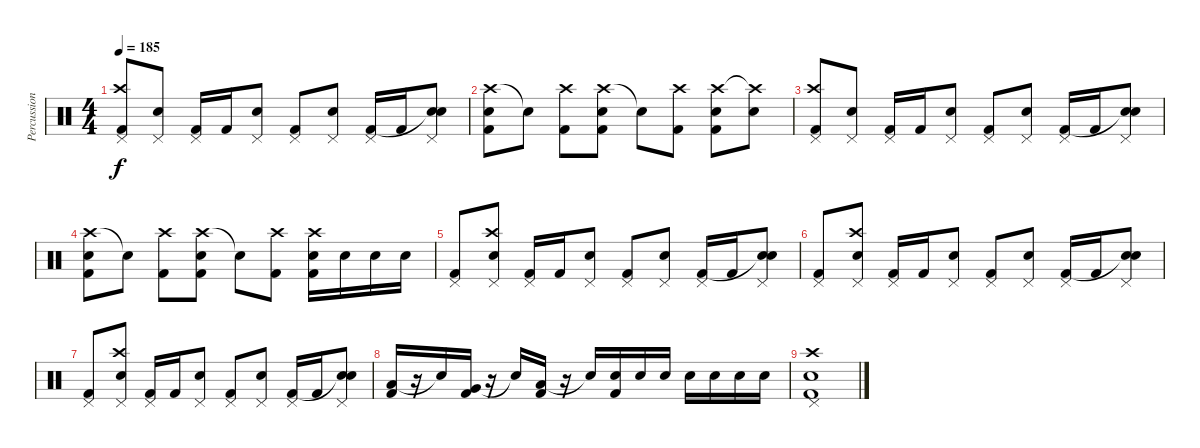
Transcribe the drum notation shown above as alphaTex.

\track ("Percussions" "Percussion") {instrument percussion}
\staff {score}
\articulation defaults
\ts (4 4)
\tempo 185
\clef neutral
\ks c
("Pedal Hi-Hat (hit)" "Crash high (hit)" "Kick (hit) 2").8{dy f} ("Pedal Hi-Hat (hit)" "Snare (hit) 2").8 ("Pedal Hi-Hat (hit)" "Kick (hit) 2").16 "Kick (hit) 2".16 ("Pedal Hi-Hat (hit)" "Snare (hit) 2").8 ("Pedal Hi-Hat (hit)" "Kick (hit) 2").8 ("Pedal Hi-Hat (hit)" "Snare (hit) 2").8 ("Pedal Hi-Hat (hit)" "Kick (hit) 2").16 "Kick (hit) 2".16 ("Pedal Hi-Hat (hit)" "Snare (hit)"{t} "Snare (hit) 2").8 |
("Crash high (hit)" "Snare (hit) 2" "Kick (hit) 2").8 "Snare (hit)"{t}.8 ("Crash high (hit)" "Kick (hit) 2").8 ("Crash high (hit)" "Snare (hit) 2" "Kick (hit) 2").8 "Snare (hit)"{t}.8 ("Crash high (hit)" "Kick (hit) 2").8 ("Crash high (hit)" "Snare (hit) 2" "Kick (hit) 2").8 ("Crash high (hit)"{t} "Snare (hit) 2").8 |
("Pedal Hi-Hat (hit)" "Crash high (hit)" "Kick (hit) 2").8 ("Pedal Hi-Hat (hit)" "Snare (hit) 2").8 ("Pedal Hi-Hat (hit)" "Kick (hit) 2").16 "Kick (hit) 2".16 ("Pedal Hi-Hat (hit)" "Snare (hit) 2").8 ("Pedal Hi-Hat (hit)" "Kick (hit) 2").8 ("Pedal Hi-Hat (hit)" "Snare (hit) 2").8 ("Pedal Hi-Hat (hit)" "Kick (hit) 2").16 "Kick (hit) 2".16 ("Pedal Hi-Hat (hit)" "Snare (hit)"{t} "Snare (hit) 2").8 |
("Crash high (hit)" "Snare (hit) 2" "Kick (hit) 2").8 "Snare (hit)"{t}.8 ("Crash high (hit)" "Kick (hit) 2").8 ("Crash high (hit)" "Snare (hit) 2" "Kick (hit) 2").8 "Snare (hit)"{t}.8 ("Crash high (hit)" "Kick (hit) 2").8 ("Crash high (hit)" "Snare (hit) 2" "Kick (hit) 2").16 "Snare (hit) 2".16 "Snare (hit) 2".16 "Snare (hit) 2".16 |
("Pedal Hi-Hat (hit)" "Kick (hit) 2").8 ("Pedal Hi-Hat (hit)" "Crash high (hit)" "Snare (hit) 2").8 ("Pedal Hi-Hat (hit)" "Kick (hit) 2").16 "Kick (hit) 2".16 ("Pedal Hi-Hat (hit)" "Snare (hit) 2").8 ("Pedal Hi-Hat (hit)" "Kick (hit) 2").8 ("Pedal Hi-Hat (hit)" "Snare (hit) 2").8 ("Pedal Hi-Hat (hit)" "Kick (hit) 2").16 "Kick (hit) 2".16 ("Pedal Hi-Hat (hit)" "Snare (hit)"{t} "Snare (hit) 2").8 |
("Pedal Hi-Hat (hit)" "Kick (hit) 2").8 ("Pedal Hi-Hat (hit)" "Crash high (hit)" "Snare (hit) 2").8 ("Pedal Hi-Hat (hit)" "Kick (hit) 2").16 "Kick (hit) 2".16 ("Pedal Hi-Hat (hit)" "Snare (hit) 2").8 ("Pedal Hi-Hat (hit)" "Kick (hit) 2").8 ("Pedal Hi-Hat (hit)" "Snare (hit) 2").8 ("Pedal Hi-Hat (hit)" "Kick (hit) 2").16 "Kick (hit) 2".16 ("Pedal Hi-Hat (hit)" "Snare (hit)"{t} "Snare (hit) 2").8 |
("Pedal Hi-Hat (hit)" "Kick (hit) 2").8 ("Pedal Hi-Hat (hit)" "Crash high (hit)" "Snare (hit) 2").8 ("Pedal Hi-Hat (hit)" "Kick (hit) 2").16 "Kick (hit) 2".16 ("Pedal Hi-Hat (hit)" "Snare (hit) 2").8 ("Pedal Hi-Hat (hit)" "Kick (hit) 2").8 ("Pedal Hi-Hat (hit)" "Snare (hit) 2").8 ("Pedal Hi-Hat (hit)" "Kick (hit) 2").16 "Kick (hit) 2".16 ("Pedal Hi-Hat (hit)" "Snare (hit)"{t} "Snare (hit) 2").8 |
("Low Tom (hit)" "Kick (hit) 2").16 r.16 "Snare (hit)"{t}.16 ("Very Low Tom (hit)" "Kick (hit) 2").16 r.16 "Snare (hit)"{t}.16 ("Low Floor Tom (hit)" "Kick (hit) 2").16 r.16 "Snare (hit)"{t}.16 ("Snare (hit) 2" "Kick (hit) 2").16 "Snare (hit) 2".16 "Snare (hit) 2".16 "Snare (hit) 2".16 "Snare (hit) 2".16 "Snare (hit) 2".16 "Snare (hit) 2".16 |
("Pedal Hi-Hat (hit)" "Crash high (hit)" "Snare (hit) 2" "Kick (hit) 2").1
